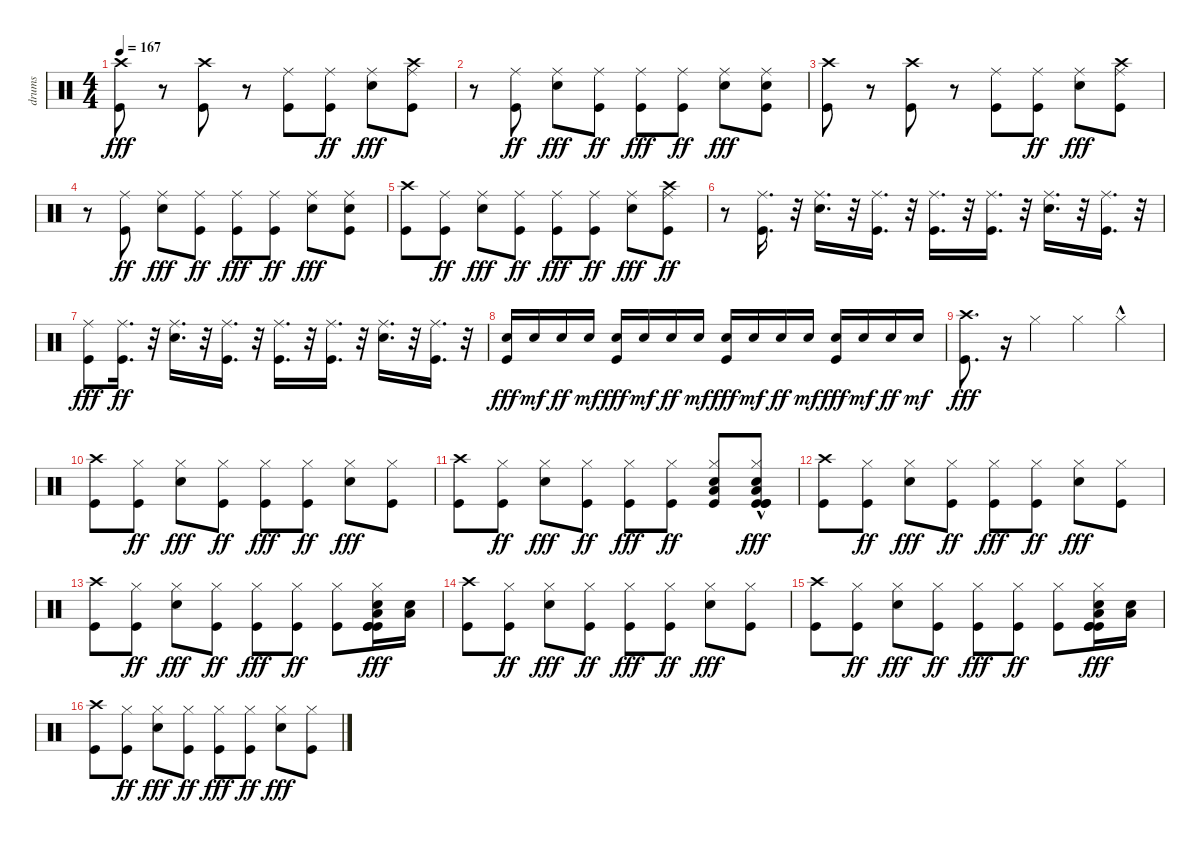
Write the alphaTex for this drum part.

\track ("drums" "drums") {instrument percussion}
\staff {score}
\articulation defaults
\ts (4 4)
\tempo 167
\clef neutral
\ks c
("Kick (hit)" "Crash high (hit)").8{dy fff} r.8 ("Kick (hit)" "Crash high (hit)").8 r.8 ("Kick (hit)" "Ride (middle)").8 ("Kick (hit)" "Ride (middle)").8{dy ff} ("Snare (hit) 2" "Ride (middle)").8{dy fff} ("Ride (middle)" "Crash high (hit)" "Kick (hit)").8 |
r.8 ("Kick (hit)" "Ride (middle)").8{dy ff} ("Snare (hit) 2" "Ride (middle)").8{dy fff} ("Kick (hit)" "Ride (middle)").8{dy ff} ("Kick (hit)" "Ride (middle)").8{dy fff} ("Kick (hit)" "Ride (middle)").8{dy ff} ("Snare (hit) 2" "Ride (middle)").8{dy fff} ("Ride (middle)" "Snare (hit) 2" "Kick (hit)").8 |
("Kick (hit)" "Crash high (hit)").8 r.8 ("Kick (hit)" "Crash high (hit)").8 r.8 ("Kick (hit)" "Ride (middle)").8 ("Kick (hit)" "Ride (middle)").8{dy ff} ("Snare (hit) 2" "Ride (middle)").8{dy fff} ("Ride (middle)" "Crash high (hit)" "Kick (hit)").8 |
r.8 ("Kick (hit)" "Ride (middle)").8{dy ff} ("Snare (hit) 2" "Ride (middle)").8{dy fff} ("Kick (hit)" "Ride (middle)").8{dy ff} ("Kick (hit)" "Ride (middle)").8{dy fff} ("Kick (hit)" "Ride (middle)").8{dy ff} ("Snare (hit) 2" "Ride (middle)").8{dy fff} ("Ride (middle)" "Snare (hit) 2" "Kick (hit)").8 |
("Kick (hit)" "Crash high (hit)").8 ("Kick (hit)" "Ride (middle)").8{dy ff} ("Snare (hit) 2" "Ride (middle)").8{dy fff} ("Kick (hit)" "Ride (middle)").8{dy ff} ("Kick (hit)" "Ride (middle)").8{dy fff} ("Kick (hit)" "Ride (middle)").8{dy ff} ("Snare (hit) 2" "Ride (middle)").8{dy fff} ("Ride (middle)" "Kick (hit)" "Crash high (hit)").8{dy ff} |
r.8 ("Kick (hit)" "Ride (middle)").16{d} r.32 ("Snare (hit) 2" "Ride (middle)").16{d} r.32 ("Kick (hit)" "Ride (middle)").16{d} r.32 ("Kick (hit)" "Ride (middle)").16{d} r.32 ("Kick (hit)" "Ride (middle)").16{d} r.32 ("Snare (hit) 2" "Ride (middle)").16{d} r.32 ("Kick (hit)" "Ride (middle)").16{d} r.32 |
("Kick (hit)" "Ride (middle)").8{dy fff} ("Kick (hit)" "Ride (middle)").16{d dy ff} r.32 ("Snare (hit) 2" "Ride (middle)").16{d} r.32 ("Kick (hit)" "Ride (middle)").16{d} r.32 ("Kick (hit)" "Ride (middle)").16{d} r.32 ("Kick (hit)" "Ride (middle)").16{d} r.32 ("Snare (hit) 2" "Ride (middle)").16{d} r.32 ("Kick (hit)" "Ride (middle)").16{d} r.32 |
("Kick (hit)" "Snare (hit) 2").16{dy fff} "Snare (hit) 2".16{dy mf} "Snare (hit) 2".16{dy ff} "Snare (hit) 2".16{dy mf} ("Kick (hit)" "Snare (hit) 2").16{dy fff} "Snare (hit) 2".16{dy mf} "Snare (hit) 2".16{dy ff} "Snare (hit) 2".16{dy mf} ("Kick (hit)" "Snare (hit) 2").16{dy fff} "Snare (hit) 2".16{dy mf} "Snare (hit) 2".16{dy ff} "Snare (hit) 2".16{dy mf} ("Kick (hit)" "Snare (hit) 2").16{dy fff} "Snare (hit) 2".16{dy mf} "Snare (hit) 2".16{dy ff} "Snare (hit) 2".16{dy mf} |
("Kick (hit)" "Crash high (hit)").8{d dy fff} r.16 "Hi-Hat (closed)".4 "Hi-Hat (closed)".4 "Hi-Hat (closed)"{hac}.4 |
("Crash high (hit)" "Kick (hit)").8 ("Kick (hit)" "Hi-Hat (closed)").8{dy ff} ("Snare (hit) 2" "Hi-Hat (closed)").8{dy fff} ("Kick (hit)" "Hi-Hat (closed)").8{dy ff} ("Kick (hit)" "Hi-Hat (closed)").8{dy fff} ("Kick (hit)" "Hi-Hat (closed)").8{dy ff} ("Snare (hit) 2" "Hi-Hat (closed)").8{dy fff} ("Hi-Hat (closed)" "Kick (hit)").8 |
("Crash high (hit)" "Kick (hit)").8 ("Kick (hit)" "Hi-Hat (closed)").8{dy ff} ("Snare (hit) 2" "Hi-Hat (closed)").8{dy fff} ("Kick (hit)" "Hi-Hat (closed)").8{dy ff} ("Kick (hit)" "Hi-Hat (closed)").8{dy fff} ("Kick (hit)" "Hi-Hat (closed)").8{dy ff} ("Kick (hit)" "Low Floor Tom (hit)" "Snare (hit) 2" "Hi-Hat (closed)").8 ("Hi-Hat (closed)" "Snare (hit) 2"{hac} "Kick (hit)" "Low Floor Tom (hit)" "Kick (hit)" "Kick (hit)").8{dy fff} |
("Crash high (hit)" "Kick (hit)").8 ("Kick (hit)" "Hi-Hat (closed)").8{dy ff} ("Snare (hit) 2" "Hi-Hat (closed)").8{dy fff} ("Kick (hit)" "Hi-Hat (closed)").8{dy ff} ("Kick (hit)" "Hi-Hat (closed)").8{dy fff} ("Kick (hit)" "Hi-Hat (closed)").8{dy ff} ("Snare (hit) 2" "Hi-Hat (closed)").8{dy fff} ("Hi-Hat (closed)" "Kick (hit)").8 |
("Crash high (hit)" "Kick (hit)").8 ("Kick (hit)" "Hi-Hat (closed)").8{dy ff} ("Snare (hit) 2" "Hi-Hat (closed)").8{dy fff} ("Kick (hit)" "Hi-Hat (closed)").8{dy ff} ("Kick (hit)" "Hi-Hat (closed)").8{dy fff} ("Kick (hit)" "Hi-Hat (closed)").8{dy ff} ("Kick (hit)" "Hi-Hat (closed)").8 ("Hi-Hat (closed)" "Kick (hit)" "Kick (hit)" "Kick (hit)" "Low Floor Tom (hit)" "Snare (hit) 2").16{dy fff} ("Low Floor Tom (hit)" "Snare (hit) 2").16 |
("Crash high (hit)" "Kick (hit)").8 ("Kick (hit)" "Hi-Hat (closed)").8{dy ff} ("Snare (hit) 2" "Hi-Hat (closed)").8{dy fff} ("Kick (hit)" "Hi-Hat (closed)").8{dy ff} ("Kick (hit)" "Hi-Hat (closed)").8{dy fff} ("Kick (hit)" "Hi-Hat (closed)").8{dy ff} ("Snare (hit) 2" "Hi-Hat (closed)").8{dy fff} ("Hi-Hat (closed)" "Kick (hit)").8 |
("Crash high (hit)" "Kick (hit)").8 ("Kick (hit)" "Hi-Hat (closed)").8{dy ff} ("Snare (hit) 2" "Hi-Hat (closed)").8{dy fff} ("Kick (hit)" "Hi-Hat (closed)").8{dy ff} ("Kick (hit)" "Hi-Hat (closed)").8{dy fff} ("Kick (hit)" "Hi-Hat (closed)").8{dy ff} ("Kick (hit)" "Hi-Hat (closed)").8 ("Hi-Hat (closed)" "Kick (hit)" "Kick (hit)" "Kick (hit)" "Low Floor Tom (hit)" "Snare (hit) 2").16{dy fff} ("Low Floor Tom (hit)" "Snare (hit) 2").16 |
("Crash high (hit)" "Kick (hit)").8 ("Kick (hit)" "Hi-Hat (closed)").8{dy ff} ("Snare (hit) 2" "Hi-Hat (closed)").8{dy fff} ("Kick (hit)" "Hi-Hat (closed)").8{dy ff} ("Kick (hit)" "Hi-Hat (closed)").8{dy fff} ("Kick (hit)" "Hi-Hat (closed)").8{dy ff} ("Snare (hit) 2" "Hi-Hat (closed)").8{dy fff} ("Hi-Hat (closed)" "Kick (hit)").8
